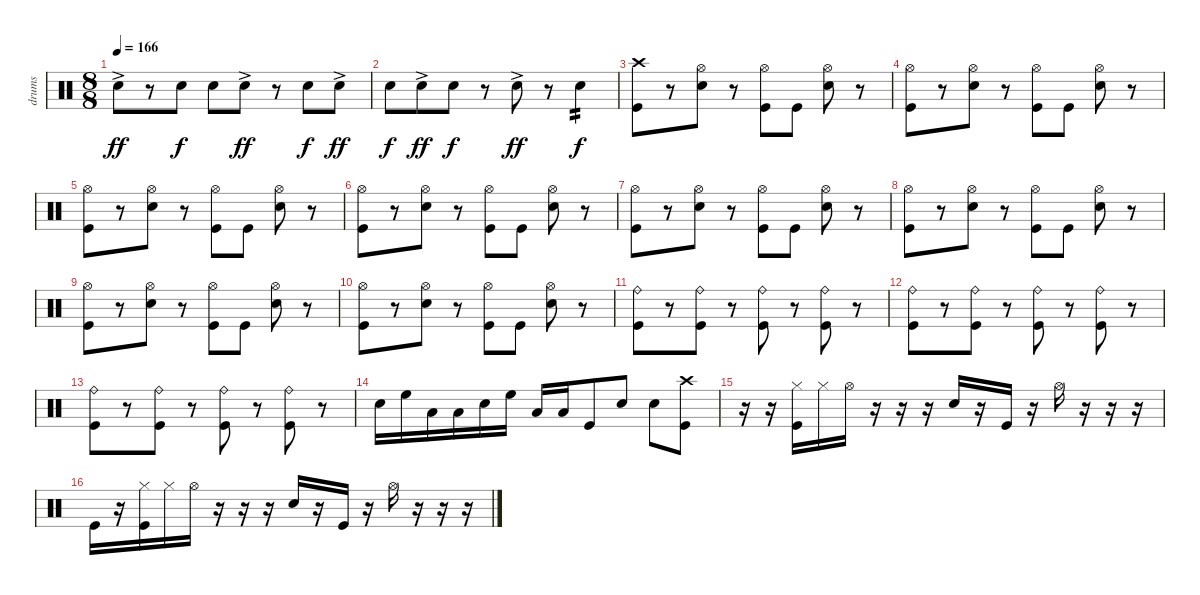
\track ("drums" "drums") {instrument percussion}
\staff {score}
\articulation defaults
\ts (8 8)
\tempo 166
\clef neutral
\ks c "Snare (hit) 2"{ac}.8{dy ff}
r.8 "Snare (hit) 2".8{dy f} "Snare (hit) 2".8 "Snare (hit) 2"{ac}.8{dy ff} r.8 "Snare (hit) 2".8{dy f} "Snare (hit) 2"{ac}.8{dy ff} |
"Snare (hit) 2".8{dy f} "Snare (hit) 2"{ac}.8{dy ff} "Snare (hit) 2".8{dy f} r.8 "Snare (hit) 2"{ac}.8{dy ff} r.8 "Snare (hit) 2".4{tp 2 dy f} |
("Crash high (hit)" "Kick (hit)").8 r.8 ("Hi-Hat (open)" "Snare (hit) 2").8 r.8 ("Hi-Hat (open)" "Kick (hit)").8 "Kick (hit)".8 ("Hi-Hat (open)" "Snare (hit) 2").8 r.8 |
("Hi-Hat (open)" "Kick (hit)").8 r.8 ("Hi-Hat (open)" "Snare (hit) 2").8 r.8 ("Hi-Hat (open)" "Kick (hit)").8 "Kick (hit)".8 ("Hi-Hat (open)" "Snare (hit) 2").8 r.8 |
("Hi-Hat (open)" "Kick (hit)").8 r.8 ("Hi-Hat (open)" "Snare (hit) 2").8 r.8 ("Hi-Hat (open)" "Kick (hit)").8 "Kick (hit)".8 ("Hi-Hat (open)" "Snare (hit) 2").8 r.8 |
("Hi-Hat (open)" "Kick (hit)").8 r.8 ("Hi-Hat (open)" "Snare (hit) 2").8 r.8 ("Hi-Hat (open)" "Kick (hit)").8 "Kick (hit)".8 ("Hi-Hat (open)" "Snare (hit) 2").8 r.8 |
("Hi-Hat (open)" "Kick (hit)").8 r.8 ("Hi-Hat (open)" "Snare (hit) 2").8 r.8 ("Hi-Hat (open)" "Kick (hit)").8 "Kick (hit)".8 ("Hi-Hat (open)" "Snare (hit) 2").8 r.8 |
("Hi-Hat (open)" "Kick (hit)").8 r.8 ("Hi-Hat (open)" "Snare (hit) 2").8 r.8 ("Hi-Hat (open)" "Kick (hit)").8 "Kick (hit)".8 ("Hi-Hat (open)" "Snare (hit) 2").8 r.8 |
("Hi-Hat (open)" "Kick (hit)").8 r.8 ("Hi-Hat (open)" "Snare (hit) 2").8 r.8 ("Hi-Hat (open)" "Kick (hit)").8 "Kick (hit)".8 ("Hi-Hat (open)" "Snare (hit) 2").8 r.8 |
("Hi-Hat (open)" "Kick (hit)").8 r.8 ("Hi-Hat (open)" "Snare (hit) 2").8 r.8 ("Hi-Hat (open)" "Kick (hit)").8 "Kick (hit)".8 ("Hi-Hat (open)" "Snare (hit) 2").8 r.8 |
("Ride (bell)" "Kick (hit)").8{volume 6} r.8 ("Ride (bell)" "Kick (hit)").8 r.8 ("Ride (bell)" "Kick (hit)").8 r.8 ("Ride (bell)" "Kick (hit)").8 r.8 |
("Ride (bell)" "Kick (hit)").8 r.8 ("Ride (bell)" "Kick (hit)").8 r.8 ("Ride (bell)" "Kick (hit)").8 r.8 ("Ride (bell)" "Kick (hit)").8 r.8 |
("Ride (bell)" "Kick (hit)").8 r.8 ("Ride (bell)" "Kick (hit)").8 r.8 ("Ride (bell)" "Kick (hit)").8 r.8 ("Ride (bell)" "Kick (hit)").8 r.8 |
"Snare (hit) 2".16{volume 9} "High Floor Tom (hit)".16 "Low Tom (hit)".16 "Low Floor Tom (hit)".16 "Snare (hit) 2".16 "High Floor Tom (hit)".16 "Low Tom (hit)".16 "Low Floor Tom (hit)".16 "Kick (hit)".8 "Snare (hit) 2".8 "Snare (hit) 2".8 ("Crash high (hit)" "Kick (hit)").8{volume 13} |
r.16 r.16 ("Hi-Hat (closed)" "Kick (hit)").16 "Hi-Hat (closed)".16 "Hi-Hat (open)".16 r.16 r.16 r.16 "Snare (hit) 2".16 r.16 "Kick (hit)".16 r.16 "Hi-Hat (open)".16 r.16 r.16 r.16 |
"Kick (hit)".16 r.16 ("Hi-Hat (closed)" "Kick (hit)").16 "Hi-Hat (closed)".16 "Hi-Hat (open)".16 r.16 r.16 r.16 "Snare (hit) 2".16 r.16 "Kick (hit)".16 r.16 "Hi-Hat (open)".16 r.16 r.16 r.16
